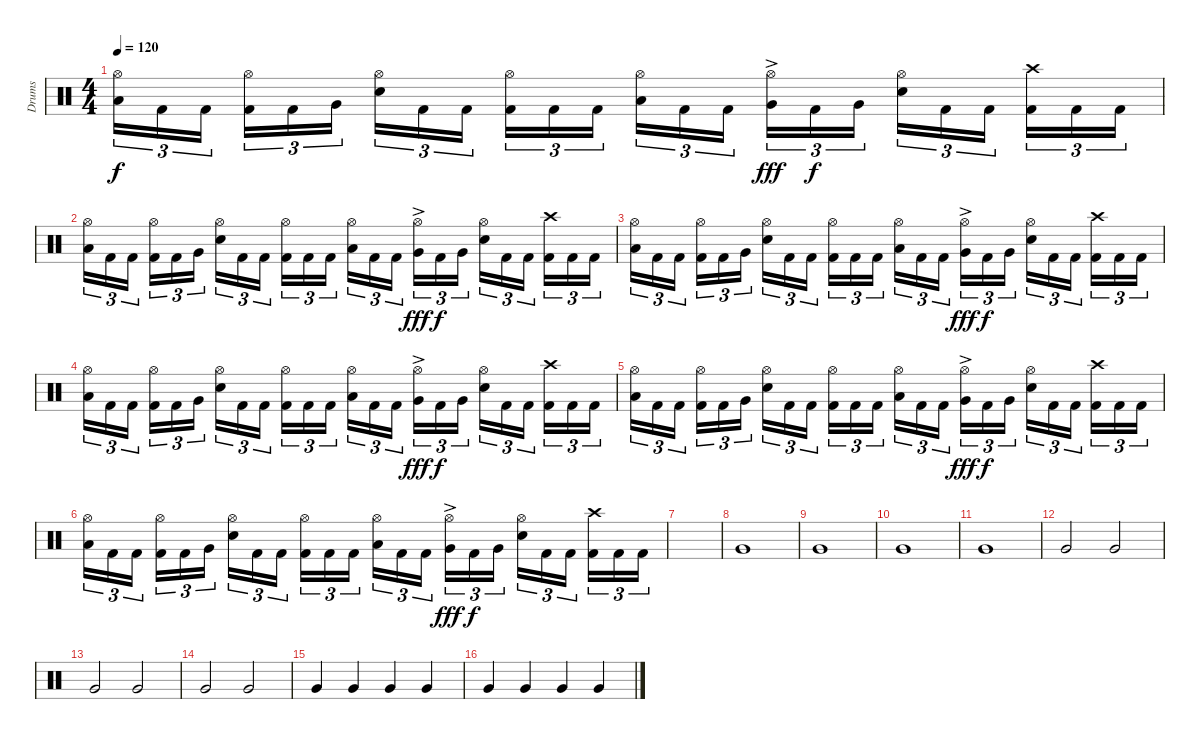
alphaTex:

\track ("Drums" "Drums") {instrument percussion}
\staff {score}
\articulation defaults
\ts (4 4)
\tempo 120
\clef neutral
\ks c
("Hi-Hat (open)" "Low Tom (hit)").16{tu (3 2) dy f} "Kick (hit) 2".16{tu (3 2)} "Kick (hit) 2".16{tu (3 2)} ("Hi-Hat (open)" "Kick (hit) 2").16{tu (3 2)} "Kick (hit) 2".16{tu (3 2)} "Very Low Tom (hit)".16{tu (3 2)} ("Hi-Hat (open)" "Electric Snare (hit)").16{tu (3 2)} "Kick (hit) 2".16{tu (3 2)} "Kick (hit) 2".16{tu (3 2)} ("Hi-Hat (open)" "Kick (hit) 2").16{tu (3 2)} "Kick (hit) 2".16{tu (3 2)} "Kick (hit) 2".16{tu (3 2)} ("Hi-Hat (open)" "Low Tom (hit)").16{tu (3 2)} "Kick (hit) 2".16{tu (3 2)} "Kick (hit) 2".16{tu (3 2)} ("Hi-Hat (open)" "Very Low Tom (hit)"{ac}).16{tu (3 2) dy fff} "Kick (hit) 2".16{tu (3 2) dy f} "Very Low Tom (hit)".16{tu (3 2)} ("Hi-Hat (open)" "Electric Snare (hit)").16{tu (3 2)} "Kick (hit) 2".16{tu (3 2)} "Kick (hit) 2".16{tu (3 2)} ("Crash high (hit)" "Kick (hit) 2").16{tu (3 2)} "Kick (hit) 2".16{tu (3 2)} "Kick (hit) 2".16{tu (3 2)} |
("Hi-Hat (open)" "Low Tom (hit)").16{tu (3 2)} "Kick (hit) 2".16{tu (3 2)} "Kick (hit) 2".16{tu (3 2)} ("Hi-Hat (open)" "Kick (hit) 2").16{tu (3 2)} "Kick (hit) 2".16{tu (3 2)} "Very Low Tom (hit)".16{tu (3 2)} ("Hi-Hat (open)" "Electric Snare (hit)").16{tu (3 2)} "Kick (hit) 2".16{tu (3 2)} "Kick (hit) 2".16{tu (3 2)} ("Hi-Hat (open)" "Kick (hit) 2").16{tu (3 2)} "Kick (hit) 2".16{tu (3 2)} "Kick (hit) 2".16{tu (3 2)} ("Hi-Hat (open)" "Low Tom (hit)").16{tu (3 2)} "Kick (hit) 2".16{tu (3 2)} "Kick (hit) 2".16{tu (3 2)} ("Hi-Hat (open)" "Very Low Tom (hit)"{ac}).16{tu (3 2) dy fff} "Kick (hit) 2".16{tu (3 2) dy f} "Very Low Tom (hit)".16{tu (3 2)} ("Hi-Hat (open)" "Electric Snare (hit)").16{tu (3 2)} "Kick (hit) 2".16{tu (3 2)} "Kick (hit) 2".16{tu (3 2)} ("Crash high (hit)" "Kick (hit) 2").16{tu (3 2)} "Kick (hit) 2".16{tu (3 2)} "Kick (hit) 2".16{tu (3 2)} |
("Hi-Hat (open)" "Low Tom (hit)").16{tu (3 2)} "Kick (hit) 2".16{tu (3 2)} "Kick (hit) 2".16{tu (3 2)} ("Hi-Hat (open)" "Kick (hit) 2").16{tu (3 2)} "Kick (hit) 2".16{tu (3 2)} "Very Low Tom (hit)".16{tu (3 2)} ("Hi-Hat (open)" "Electric Snare (hit)").16{tu (3 2)} "Kick (hit) 2".16{tu (3 2)} "Kick (hit) 2".16{tu (3 2)} ("Hi-Hat (open)" "Kick (hit) 2").16{tu (3 2)} "Kick (hit) 2".16{tu (3 2)} "Kick (hit) 2".16{tu (3 2)} ("Hi-Hat (open)" "Low Tom (hit)").16{tu (3 2)} "Kick (hit) 2".16{tu (3 2)} "Kick (hit) 2".16{tu (3 2)} ("Hi-Hat (open)" "Very Low Tom (hit)"{ac}).16{tu (3 2) dy fff} "Kick (hit) 2".16{tu (3 2) dy f} "Very Low Tom (hit)".16{tu (3 2)} ("Hi-Hat (open)" "Electric Snare (hit)").16{tu (3 2)} "Kick (hit) 2".16{tu (3 2)} "Kick (hit) 2".16{tu (3 2)} ("Crash high (hit)" "Kick (hit) 2").16{tu (3 2)} "Kick (hit) 2".16{tu (3 2)} "Kick (hit) 2".16{tu (3 2)} |
("Hi-Hat (open)" "Low Tom (hit)").16{tu (3 2)} "Kick (hit) 2".16{tu (3 2)} "Kick (hit) 2".16{tu (3 2)} ("Hi-Hat (open)" "Kick (hit) 2").16{tu (3 2)} "Kick (hit) 2".16{tu (3 2)} "Very Low Tom (hit)".16{tu (3 2)} ("Hi-Hat (open)" "Electric Snare (hit)").16{tu (3 2)} "Kick (hit) 2".16{tu (3 2)} "Kick (hit) 2".16{tu (3 2)} ("Hi-Hat (open)" "Kick (hit) 2").16{tu (3 2)} "Kick (hit) 2".16{tu (3 2)} "Kick (hit) 2".16{tu (3 2)} ("Hi-Hat (open)" "Low Tom (hit)").16{tu (3 2)} "Kick (hit) 2".16{tu (3 2)} "Kick (hit) 2".16{tu (3 2)} ("Hi-Hat (open)" "Very Low Tom (hit)"{ac}).16{tu (3 2) dy fff} "Kick (hit) 2".16{tu (3 2) dy f} "Very Low Tom (hit)".16{tu (3 2)} ("Hi-Hat (open)" "Electric Snare (hit)").16{tu (3 2)} "Kick (hit) 2".16{tu (3 2)} "Kick (hit) 2".16{tu (3 2)} ("Crash high (hit)" "Kick (hit) 2").16{tu (3 2)} "Kick (hit) 2".16{tu (3 2)} "Kick (hit) 2".16{tu (3 2)} |
("Hi-Hat (open)" "Low Tom (hit)").16{tu (3 2)} "Kick (hit) 2".16{tu (3 2)} "Kick (hit) 2".16{tu (3 2)} ("Hi-Hat (open)" "Kick (hit) 2").16{tu (3 2)} "Kick (hit) 2".16{tu (3 2)} "Very Low Tom (hit)".16{tu (3 2)} ("Hi-Hat (open)" "Electric Snare (hit)").16{tu (3 2)} "Kick (hit) 2".16{tu (3 2)} "Kick (hit) 2".16{tu (3 2)} ("Hi-Hat (open)" "Kick (hit) 2").16{tu (3 2)} "Kick (hit) 2".16{tu (3 2)} "Kick (hit) 2".16{tu (3 2)} ("Hi-Hat (open)" "Low Tom (hit)").16{tu (3 2)} "Kick (hit) 2".16{tu (3 2)} "Kick (hit) 2".16{tu (3 2)} ("Hi-Hat (open)" "Very Low Tom (hit)"{ac}).16{tu (3 2) dy fff} "Kick (hit) 2".16{tu (3 2) dy f} "Very Low Tom (hit)".16{tu (3 2)} ("Hi-Hat (open)" "Electric Snare (hit)").16{tu (3 2)} "Kick (hit) 2".16{tu (3 2)} "Kick (hit) 2".16{tu (3 2)} ("Crash high (hit)" "Kick (hit) 2").16{tu (3 2)} "Kick (hit) 2".16{tu (3 2)} "Kick (hit) 2".16{tu (3 2)} |
("Hi-Hat (open)" "Low Tom (hit)").16{tu (3 2)} "Kick (hit) 2".16{tu (3 2)} "Kick (hit) 2".16{tu (3 2)} ("Hi-Hat (open)" "Kick (hit) 2").16{tu (3 2)} "Kick (hit) 2".16{tu (3 2)} "Very Low Tom (hit)".16{tu (3 2)} ("Hi-Hat (open)" "Electric Snare (hit)").16{tu (3 2)} "Kick (hit) 2".16{tu (3 2)} "Kick (hit) 2".16{tu (3 2)} ("Hi-Hat (open)" "Kick (hit) 2").16{tu (3 2)} "Kick (hit) 2".16{tu (3 2)} "Kick (hit) 2".16{tu (3 2)} ("Hi-Hat (open)" "Low Tom (hit)").16{tu (3 2)} "Kick (hit) 2".16{tu (3 2)} "Kick (hit) 2".16{tu (3 2)} ("Hi-Hat (open)" "Very Low Tom (hit)"{ac}).16{tu (3 2) dy fff} "Kick (hit) 2".16{tu (3 2) dy f} "Very Low Tom (hit)".16{tu (3 2)} ("Hi-Hat (open)" "Electric Snare (hit)").16{tu (3 2)} "Kick (hit) 2".16{tu (3 2)} "Kick (hit) 2".16{tu (3 2)} ("Crash high (hit)" "Kick (hit) 2").16{tu (3 2)} "Kick (hit) 2".16{tu (3 2)} "Kick (hit) 2".16{tu (3 2)} |
|
"Very Low Tom (hit)".1 |
"Very Low Tom (hit)".1 |
"Very Low Tom (hit)".1 |
"Very Low Tom (hit)".1 |
"Very Low Tom (hit)".2 "Very Low Tom (hit)".2 |
"Very Low Tom (hit)".2 "Very Low Tom (hit)".2 |
"Very Low Tom (hit)".2 "Very Low Tom (hit)".2 |
"Very Low Tom (hit)".4 "Very Low Tom (hit)".4 "Very Low Tom (hit)".4 "Very Low Tom (hit)".4 |
"Very Low Tom (hit)".4 "Very Low Tom (hit)".4 "Very Low Tom (hit)".4 "Very Low Tom (hit)".4
